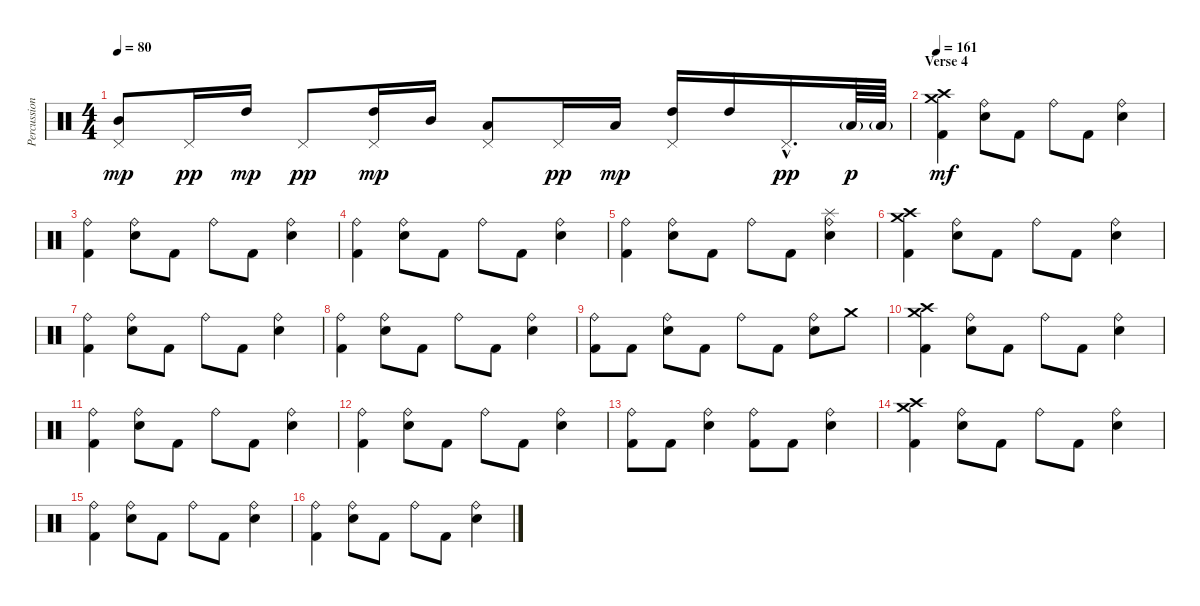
\track ("Percussion" "Percussion") {instrument percussion}
\staff {score}
\articulation defaults
\ts (4 4)
\tempo 80
\clef neutral
\ks c
("Pedal Hi-Hat (hit)" "Mid Tom (hit)").8{dy mp} "Pedal Hi-Hat (hit)".16{dy pp} "High Tom (hit)".16{dy mp} "Pedal Hi-Hat (hit)".8{dy pp} ("Pedal Hi-Hat (hit)" "High Tom (hit)").16{dy mp} "Mid Tom (hit)".16 ("Pedal Hi-Hat (hit)" "Low Tom (hit)").8 "Pedal Hi-Hat (hit)".16{dy pp} "Low Tom (hit)".16{dy mp} ("Pedal Hi-Hat (hit)" "High Tom (hit)").16 "High Tom (hit)".16 "Pedal Hi-Hat (hit)"{hac}.16{d dy pp} "Low Tom (hit)"{g}.64{dy p} "Low Tom (hit)"{g}.64 |
\section ("" "Verse 4")
\tempo 161
("Crash medium (hit)" "Crash high (hit)" "Kick (hit) 2").4{dy mf} ("Ride (bell)" "Electric Snare (hit)").8 "Kick (hit) 2".8 "Ride (bell)".8 "Kick (hit) 2".8 ("Ride (bell)" "Electric Snare (hit)").4 |
("Ride (bell)" "Kick (hit) 2").4 ("Ride (bell)" "Electric Snare (hit)").8 "Kick (hit) 2".8 "Ride (bell)".8 "Kick (hit) 2".8 ("Ride (bell)" "Electric Snare (hit)").4 |
("Ride (bell)" "Kick (hit) 2").4 ("Ride (bell)" "Electric Snare (hit)").8 "Kick (hit) 2".8 "Ride (bell)".8 "Kick (hit) 2".8 ("Ride (bell)" "Electric Snare (hit)").4 |
("Ride (bell)" "Kick (hit) 2").4 ("Ride (bell)" "Electric Snare (hit)").8 "Kick (hit) 2".8 "Ride (bell)".8 "Kick (hit) 2".8 ("Splash (hit)" "Ride (bell)" "Electric Snare (hit)").4 |
("Crash medium (hit)" "Crash high (hit)" "Kick (hit) 2").4 ("Ride (bell)" "Electric Snare (hit)").8 "Kick (hit) 2".8 "Ride (bell)".8 "Kick (hit) 2".8 ("Ride (bell)" "Electric Snare (hit)").4 |
("Ride (bell)" "Kick (hit) 2").4 ("Ride (bell)" "Electric Snare (hit)").8 "Kick (hit) 2".8 "Ride (bell)".8 "Kick (hit) 2".8 ("Ride (bell)" "Electric Snare (hit)").4 |
("Ride (bell)" "Kick (hit) 2").4 ("Ride (bell)" "Electric Snare (hit)").8 "Kick (hit) 2".8 "Ride (bell)".8 "Kick (hit) 2".8 ("Ride (bell)" "Electric Snare (hit)").4 |
("Ride (bell)" "Kick (hit) 2").8 "Kick (hit) 2".8 ("Ride (bell)" "Electric Snare (hit)").8 "Kick (hit) 2".8 "Ride (bell)".8 "Kick (hit) 2".8 ("Ride (bell)" "Electric Snare (hit)").8 "Crash medium (hit)".8 |
("Crash medium (hit)" "Crash high (hit)" "Kick (hit) 2").4 ("Ride (bell)" "Electric Snare (hit)").8 "Kick (hit) 2".8 "Ride (bell)".8 "Kick (hit) 2".8 ("Ride (bell)" "Electric Snare (hit)").4 |
("Ride (bell)" "Kick (hit) 2").4 ("Ride (bell)" "Electric Snare (hit)").8 "Kick (hit) 2".8 "Ride (bell)".8 "Kick (hit) 2".8 ("Ride (bell)" "Electric Snare (hit)").4 |
("Ride (bell)" "Kick (hit) 2").4 ("Ride (bell)" "Electric Snare (hit)").8 "Kick (hit) 2".8 "Ride (bell)".8 "Kick (hit) 2".8 ("Ride (bell)" "Electric Snare (hit)").4 |
("Ride (bell)" "Kick (hit) 2").8 "Kick (hit) 2".8 ("Ride (bell)" "Electric Snare (hit)").4 ("Ride (bell)" "Kick (hit) 2").8 "Kick (hit) 2".8 ("Ride (bell)" "Electric Snare (hit)").4 |
("Crash medium (hit)" "Crash high (hit)" "Kick (hit) 2").4 ("Ride (bell)" "Electric Snare (hit)").8 "Kick (hit) 2".8 "Ride (bell)".8 "Kick (hit) 2".8 ("Ride (bell)" "Electric Snare (hit)").4 |
("Ride (bell)" "Kick (hit) 2").4 ("Ride (bell)" "Electric Snare (hit)").8 "Kick (hit) 2".8 "Ride (bell)".8 "Kick (hit) 2".8 ("Ride (bell)" "Electric Snare (hit)").4 |
("Ride (bell)" "Kick (hit) 2").4 ("Ride (bell)" "Electric Snare (hit)").8 "Kick (hit) 2".8 "Ride (bell)".8 "Kick (hit) 2".8 ("Ride (bell)" "Electric Snare (hit)").4
